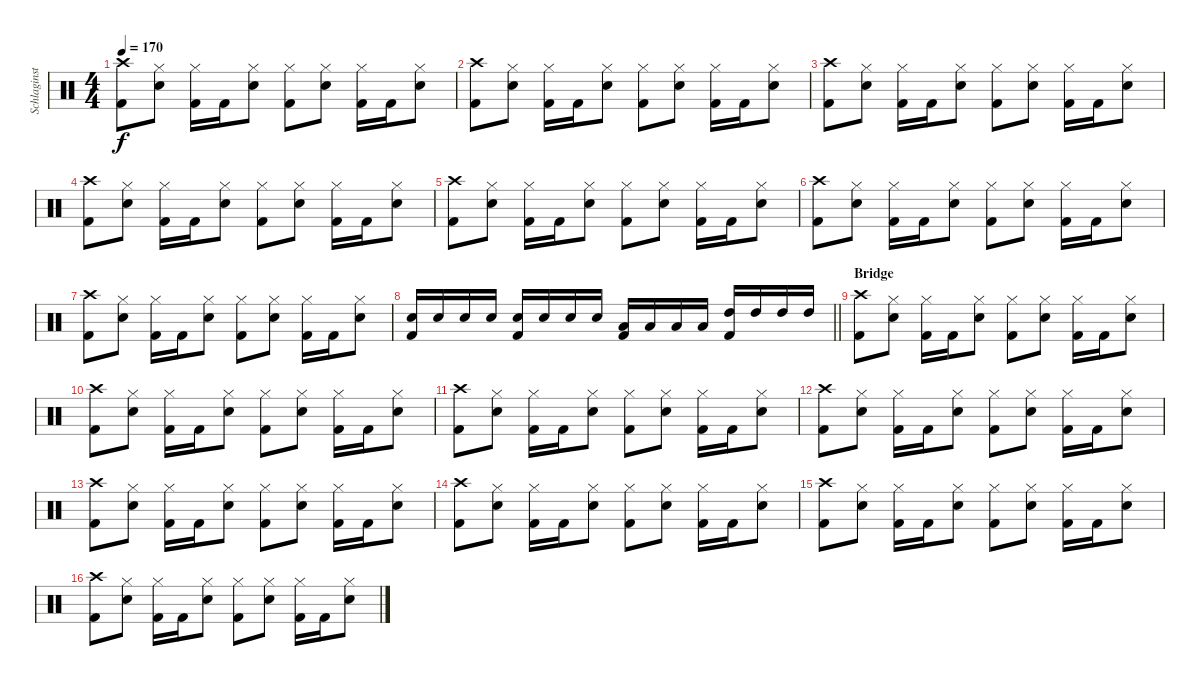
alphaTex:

\track ("Schlaginstrumente - Auswahl" "Schlaginst") {instrument percussion}
\staff {score}
\articulation defaults
\ts (4 4)
\tempo 170
\clef neutral
\ks c
("Crash high (hit)" "Kick (hit) 2").8{dy f} ("Hi-Hat (closed)" "Snare (hit) 2").8 ("Hi-Hat (closed)" "Kick (hit) 2").16 "Kick (hit) 2".16 ("Hi-Hat (closed)" "Snare (hit) 2").8 ("Hi-Hat (closed)" "Kick (hit) 2").8 ("Hi-Hat (closed)" "Snare (hit) 2").8 ("Hi-Hat (closed)" "Kick (hit) 2").16 "Kick (hit) 2".16 ("Hi-Hat (closed)" "Snare (hit) 2").8 |
("Crash high (hit)" "Kick (hit) 2").8 ("Hi-Hat (closed)" "Snare (hit) 2").8 ("Hi-Hat (closed)" "Kick (hit) 2").16 "Kick (hit) 2".16 ("Hi-Hat (closed)" "Snare (hit) 2").8 ("Hi-Hat (closed)" "Kick (hit) 2").8 ("Hi-Hat (closed)" "Snare (hit) 2").8 ("Hi-Hat (closed)" "Kick (hit) 2").16 "Kick (hit) 2".16 ("Hi-Hat (closed)" "Snare (hit) 2").8 |
("Crash high (hit)" "Kick (hit) 2").8 ("Hi-Hat (closed)" "Snare (hit) 2").8 ("Hi-Hat (closed)" "Kick (hit) 2").16 "Kick (hit) 2".16 ("Hi-Hat (closed)" "Snare (hit) 2").8 ("Hi-Hat (closed)" "Kick (hit) 2").8 ("Hi-Hat (closed)" "Snare (hit) 2").8 ("Hi-Hat (closed)" "Kick (hit) 2").16 "Kick (hit) 2".16 ("Hi-Hat (closed)" "Snare (hit) 2").8 |
("Crash high (hit)" "Kick (hit) 2").8 ("Hi-Hat (closed)" "Snare (hit) 2").8 ("Hi-Hat (closed)" "Kick (hit) 2").16 "Kick (hit) 2".16 ("Hi-Hat (closed)" "Snare (hit) 2").8 ("Hi-Hat (closed)" "Kick (hit) 2").8 ("Hi-Hat (closed)" "Snare (hit) 2").8 ("Hi-Hat (closed)" "Kick (hit) 2").16 "Kick (hit) 2".16 ("Hi-Hat (closed)" "Snare (hit) 2").8 |
("Crash high (hit)" "Kick (hit) 2").8 ("Hi-Hat (closed)" "Snare (hit) 2").8 ("Hi-Hat (closed)" "Kick (hit) 2").16 "Kick (hit) 2".16 ("Hi-Hat (closed)" "Snare (hit) 2").8 ("Hi-Hat (closed)" "Kick (hit) 2").8 ("Hi-Hat (closed)" "Snare (hit) 2").8 ("Hi-Hat (closed)" "Kick (hit) 2").16 "Kick (hit) 2".16 ("Hi-Hat (closed)" "Snare (hit) 2").8 |
("Crash high (hit)" "Kick (hit) 2").8 ("Hi-Hat (closed)" "Snare (hit) 2").8 ("Hi-Hat (closed)" "Kick (hit) 2").16 "Kick (hit) 2".16 ("Hi-Hat (closed)" "Snare (hit) 2").8 ("Hi-Hat (closed)" "Kick (hit) 2").8 ("Hi-Hat (closed)" "Snare (hit) 2").8 ("Hi-Hat (closed)" "Kick (hit) 2").16 "Kick (hit) 2".16 ("Hi-Hat (closed)" "Snare (hit) 2").8 |
("Crash high (hit)" "Kick (hit) 2").8 ("Hi-Hat (closed)" "Snare (hit) 2").8 ("Hi-Hat (closed)" "Kick (hit) 2").16 "Kick (hit) 2".16 ("Hi-Hat (closed)" "Snare (hit) 2").8 ("Hi-Hat (closed)" "Kick (hit) 2").8 ("Hi-Hat (closed)" "Snare (hit) 2").8 ("Hi-Hat (closed)" "Kick (hit) 2").16 "Kick (hit) 2".16 ("Hi-Hat (closed)" "Snare (hit) 2").8 |
\barLineRight lightlight
("Snare (hit) 2" "Kick (hit) 2").16 "Snare (hit) 2".16 "Snare (hit) 2".16 "Snare (hit) 2".16 ("Snare (hit) 2" "Kick (hit) 2").16 "Snare (hit) 2".16 "Snare (hit) 2".16 "Snare (hit) 2".16 ("Low Tom (hit)" "Kick (hit) 2").16 "Low Tom (hit)".16 "Low Tom (hit)".16 "Low Tom (hit)".16 ("High Tom (hit)" "Kick (hit) 2").16 "High Tom (hit)".16 "High Tom (hit)".16 "High Tom (hit)".16 |
\section ("" "Bridge")
("Crash high (hit)" "Kick (hit) 2").8 ("Hi-Hat (closed)" "Snare (hit) 2").8 ("Hi-Hat (closed)" "Kick (hit) 2").16 "Kick (hit) 2".16 ("Hi-Hat (closed)" "Snare (hit) 2").8 ("Hi-Hat (closed)" "Kick (hit) 2").8 ("Hi-Hat (closed)" "Snare (hit) 2").8 ("Hi-Hat (closed)" "Kick (hit) 2").16 "Kick (hit) 2".16 ("Hi-Hat (closed)" "Snare (hit) 2").8 |
("Crash high (hit)" "Kick (hit) 2").8 ("Hi-Hat (closed)" "Snare (hit) 2").8 ("Hi-Hat (closed)" "Kick (hit) 2").16 "Kick (hit) 2".16 ("Hi-Hat (closed)" "Snare (hit) 2").8 ("Hi-Hat (closed)" "Kick (hit) 2").8 ("Hi-Hat (closed)" "Snare (hit) 2").8 ("Hi-Hat (closed)" "Kick (hit) 2").16 "Kick (hit) 2".16 ("Hi-Hat (closed)" "Snare (hit) 2").8 |
("Crash high (hit)" "Kick (hit) 2").8 ("Hi-Hat (closed)" "Snare (hit) 2").8 ("Hi-Hat (closed)" "Kick (hit) 2").16 "Kick (hit) 2".16 ("Hi-Hat (closed)" "Snare (hit) 2").8 ("Hi-Hat (closed)" "Kick (hit) 2").8 ("Hi-Hat (closed)" "Snare (hit) 2").8 ("Hi-Hat (closed)" "Kick (hit) 2").16 "Kick (hit) 2".16 ("Hi-Hat (closed)" "Snare (hit) 2").8 |
("Crash high (hit)" "Kick (hit) 2").8 ("Hi-Hat (closed)" "Snare (hit) 2").8 ("Hi-Hat (closed)" "Kick (hit) 2").16 "Kick (hit) 2".16 ("Hi-Hat (closed)" "Snare (hit) 2").8 ("Hi-Hat (closed)" "Kick (hit) 2").8 ("Hi-Hat (closed)" "Snare (hit) 2").8 ("Hi-Hat (closed)" "Kick (hit) 2").16 "Kick (hit) 2".16 ("Hi-Hat (closed)" "Snare (hit) 2").8 |
("Crash high (hit)" "Kick (hit) 2").8 ("Hi-Hat (closed)" "Snare (hit) 2").8 ("Hi-Hat (closed)" "Kick (hit) 2").16 "Kick (hit) 2".16 ("Hi-Hat (closed)" "Snare (hit) 2").8 ("Hi-Hat (closed)" "Kick (hit) 2").8 ("Hi-Hat (closed)" "Snare (hit) 2").8 ("Hi-Hat (closed)" "Kick (hit) 2").16 "Kick (hit) 2".16 ("Hi-Hat (closed)" "Snare (hit) 2").8 |
("Crash high (hit)" "Kick (hit) 2").8 ("Hi-Hat (closed)" "Snare (hit) 2").8 ("Hi-Hat (closed)" "Kick (hit) 2").16 "Kick (hit) 2".16 ("Hi-Hat (closed)" "Snare (hit) 2").8 ("Hi-Hat (closed)" "Kick (hit) 2").8 ("Hi-Hat (closed)" "Snare (hit) 2").8 ("Hi-Hat (closed)" "Kick (hit) 2").16 "Kick (hit) 2".16 ("Hi-Hat (closed)" "Snare (hit) 2").8 |
("Crash high (hit)" "Kick (hit) 2").8 ("Hi-Hat (closed)" "Snare (hit) 2").8 ("Hi-Hat (closed)" "Kick (hit) 2").16 "Kick (hit) 2".16 ("Hi-Hat (closed)" "Snare (hit) 2").8 ("Hi-Hat (closed)" "Kick (hit) 2").8 ("Hi-Hat (closed)" "Snare (hit) 2").8 ("Hi-Hat (closed)" "Kick (hit) 2").16 "Kick (hit) 2".16 ("Hi-Hat (closed)" "Snare (hit) 2").8 |
("Crash high (hit)" "Kick (hit) 2").8 ("Hi-Hat (closed)" "Snare (hit) 2").8 ("Hi-Hat (closed)" "Kick (hit) 2").16 "Kick (hit) 2".16 ("Hi-Hat (closed)" "Snare (hit) 2").8 ("Hi-Hat (closed)" "Kick (hit) 2").8 ("Hi-Hat (closed)" "Snare (hit) 2").8 ("Hi-Hat (closed)" "Kick (hit) 2").16 "Kick (hit) 2".16 ("Hi-Hat (closed)" "Snare (hit) 2").8
